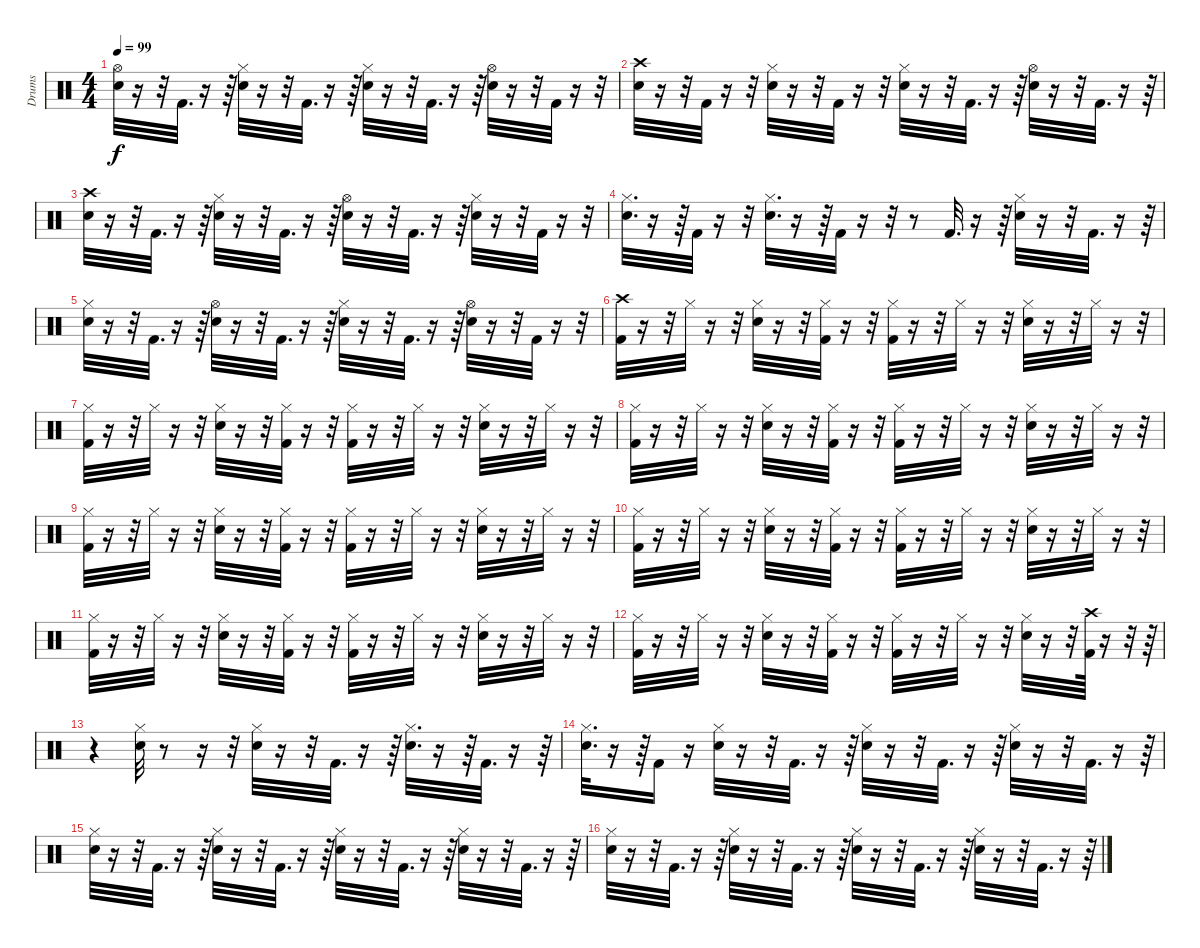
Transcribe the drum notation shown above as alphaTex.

\track ("Drums" "Drums") {instrument percussion}
\staff {score}
\articulation defaults
\ts (4 4)
\tempo 99
\clef neutral
\ks c
("Hi-Hat (open)" "Snare (hit) 2").32{dy f} r.16 r.32 "Kick (hit) 2".32{d} r.16 r.64 ("Hi-Hat (closed)" "Snare (hit) 2").32 r.16 r.32 "Kick (hit) 2".32{d} r.16 r.64 ("Hi-Hat (closed)" "Snare (hit) 2").32 r.16 r.32 "Kick (hit) 2".32{d} r.16 r.64 ("Hi-Hat (open)" "Snare (hit) 2").32 r.16 r.32 "Kick (hit) 2".32 r.16 r.32 |
("Crash high (hit)" "Snare (hit) 2").32 r.16 r.32 "Kick (hit) 2".32 r.16 r.32 ("Hi-Hat (closed)" "Snare (hit) 2").32 r.16 r.32 "Kick (hit) 2".32 r.16 r.32 ("Hi-Hat (closed)" "Snare (hit) 2").32 r.16 r.32 "Kick (hit) 2".32{d} r.16 r.64 ("Hi-Hat (open)" "Snare (hit) 2").32 r.16 r.32 "Kick (hit) 2".32{d} r.16 r.64 |
("Crash high (hit)" "Snare (hit) 2").32 r.16 r.32 "Kick (hit) 2".32{d} r.16 r.64 ("Hi-Hat (closed)" "Snare (hit) 2").32 r.16 r.32 "Kick (hit) 2".32{d} r.16 r.64 ("Hi-Hat (open)" "Snare (hit) 2").32 r.16 r.32 "Kick (hit) 2".32{d} r.16 r.64 ("Hi-Hat (closed)" "Snare (hit) 2").32 r.16 r.32 "Kick (hit) 2".32 r.16 r.32 |
("Hi-Hat (closed)" "Snare (hit) 2").32{d} r.16 r.64 "Kick (hit) 2".32 r.16 r.32 ("Hi-Hat (closed)" "Snare (hit) 2").32{d} r.16 r.64 "Kick (hit) 2".32 r.16 r.32 r.8 "Kick (hit) 2".32{d} r.16 r.64 ("Hi-Hat (closed)" "Snare (hit) 2").32 r.16 r.32 "Kick (hit) 2".32{d} r.16 r.64 |
("Hi-Hat (closed)" "Snare (hit) 2").32 r.16 r.32 "Kick (hit) 2".32{d} r.16 r.64 ("Hi-Hat (open)" "Snare (hit) 2").32 r.16 r.32 "Kick (hit) 2".32{d} r.16 r.64 ("Hi-Hat (closed)" "Snare (hit) 2").32 r.16 r.32 "Kick (hit) 2".32{d} r.16 r.64 ("Hi-Hat (open)" "Snare (hit) 2").32 r.16 r.32 "Kick (hit) 2".32 r.16 r.32 |
("Crash high (hit)" "Kick (hit) 2").32 r.16 r.32 "Hi-Hat (closed)".32 r.16 r.32 ("Hi-Hat (closed)" "Snare (hit) 2").32 r.16 r.32 ("Hi-Hat (closed)" "Kick (hit) 2").32 r.16 r.32 ("Hi-Hat (closed)" "Kick (hit) 2").32 r.16 r.32 "Hi-Hat (closed)".32 r.16 r.32 ("Hi-Hat (closed)" "Snare (hit) 2").32 r.16 r.32 "Hi-Hat (closed)".32 r.16 r.32 |
("Hi-Hat (closed)" "Kick (hit) 2").32 r.16 r.32 "Hi-Hat (closed)".32 r.16 r.32 ("Hi-Hat (closed)" "Snare (hit) 2").32 r.16 r.32 ("Hi-Hat (closed)" "Kick (hit) 2").32 r.16 r.32 ("Hi-Hat (closed)" "Kick (hit) 2").32 r.16 r.32 "Hi-Hat (closed)".32 r.16 r.32 ("Hi-Hat (closed)" "Snare (hit) 2").32 r.16 r.32 "Hi-Hat (closed)".32 r.16 r.32 |
("Hi-Hat (closed)" "Kick (hit) 2").32 r.16 r.32 "Hi-Hat (closed)".32 r.16 r.32 ("Hi-Hat (closed)" "Snare (hit) 2").32 r.16 r.32 ("Hi-Hat (closed)" "Kick (hit) 2").32 r.16 r.32 ("Hi-Hat (closed)" "Kick (hit) 2").32 r.16 r.32 "Hi-Hat (closed)".32 r.16 r.32 ("Hi-Hat (closed)" "Snare (hit) 2").32 r.16 r.32 "Hi-Hat (closed)".32 r.16 r.32 |
("Hi-Hat (closed)" "Kick (hit) 2").32 r.16 r.32 "Hi-Hat (closed)".32 r.16 r.32 ("Hi-Hat (closed)" "Snare (hit) 2").32 r.16 r.32 ("Hi-Hat (closed)" "Kick (hit) 2").32 r.16 r.32 ("Hi-Hat (closed)" "Kick (hit) 2").32 r.16 r.32 "Hi-Hat (closed)".32 r.16 r.32 ("Hi-Hat (closed)" "Snare (hit) 2").32 r.16 r.32 "Hi-Hat (closed)".32 r.16 r.32 |
("Hi-Hat (closed)" "Kick (hit) 2").32 r.16 r.32 "Hi-Hat (closed)".32 r.16 r.32 ("Hi-Hat (closed)" "Snare (hit) 2").32 r.16 r.32 ("Hi-Hat (closed)" "Kick (hit) 2").32 r.16 r.32 ("Hi-Hat (closed)" "Kick (hit) 2").32 r.16 r.32 "Hi-Hat (closed)".32 r.16 r.32 ("Hi-Hat (closed)" "Snare (hit) 2").32 r.16 r.32 "Hi-Hat (closed)".32 r.16 r.32 |
("Hi-Hat (closed)" "Kick (hit) 2").32 r.16 r.32 "Hi-Hat (closed)".32 r.16 r.32 ("Hi-Hat (closed)" "Snare (hit) 2").32 r.16 r.32 ("Hi-Hat (closed)" "Kick (hit) 2").32 r.16 r.32 ("Hi-Hat (closed)" "Kick (hit) 2").32 r.16 r.32 "Hi-Hat (closed)".32 r.16 r.32 ("Hi-Hat (closed)" "Snare (hit) 2").32 r.16 r.32 "Hi-Hat (closed)".32 r.16 r.32 |
("Hi-Hat (closed)" "Kick (hit) 2").32 r.16 r.32 "Hi-Hat (closed)".32 r.16 r.32 ("Hi-Hat (closed)" "Snare (hit) 2").32 r.16 r.32 ("Hi-Hat (closed)" "Kick (hit) 2").32 r.16 r.32 ("Hi-Hat (closed)" "Kick (hit) 2").32 r.16 r.32 "Hi-Hat (closed)".32 r.16 r.32 ("Hi-Hat (closed)" "Snare (hit) 2").32 r.16 r.32 ("Crash high (hit)" "Kick (hit) 2").64 r.16 r.32 r.64 |
r.4 ("Hi-Hat (closed)" "Snare (hit) 2").32 r.8 r.16 r.32 ("Hi-Hat (closed)" "Snare (hit) 2").32 r.16 r.32 "Kick (hit) 2".32{d} r.16 r.64 ("Hi-Hat (closed)" "Snare (hit) 2").32{d} r.16 r.64 "Kick (hit) 2".32{d} r.16 r.64 |
("Hi-Hat (closed)" "Snare (hit) 2").32{d} r.16 r.64 "Kick (hit) 2".16 r.16 ("Hi-Hat (closed)" "Snare (hit) 2").32 r.16 r.32 "Kick (hit) 2".32{d} r.16 r.64 ("Hi-Hat (closed)" "Snare (hit) 2").32 r.16 r.32 "Kick (hit) 2".32{d} r.16 r.64 ("Hi-Hat (closed)" "Snare (hit) 2").32 r.16 r.32 "Kick (hit) 2".32{d} r.16 r.64 |
("Hi-Hat (closed)" "Snare (hit) 2").32 r.16 r.32 "Kick (hit) 2".32{d} r.16 r.64 ("Hi-Hat (closed)" "Snare (hit) 2").32 r.16 r.32 "Kick (hit) 2".32{d} r.16 r.64 ("Hi-Hat (closed)" "Snare (hit) 2").32 r.16 r.32 "Kick (hit) 2".32{d} r.16 r.64 ("Hi-Hat (closed)" "Snare (hit) 2").32 r.16 r.32 "Kick (hit) 2".32{d} r.16 r.64 |
("Hi-Hat (closed)" "Snare (hit) 2").32 r.16 r.32 "Kick (hit) 2".32{d} r.16 r.64 ("Hi-Hat (closed)" "Snare (hit) 2").32 r.16 r.32 "Kick (hit) 2".32{d} r.16 r.64 ("Hi-Hat (closed)" "Snare (hit) 2").32 r.16 r.32 "Kick (hit) 2".32{d} r.16 r.64 ("Hi-Hat (closed)" "Snare (hit) 2").32 r.16 r.32 "Kick (hit) 2".32{d} r.16 r.64
